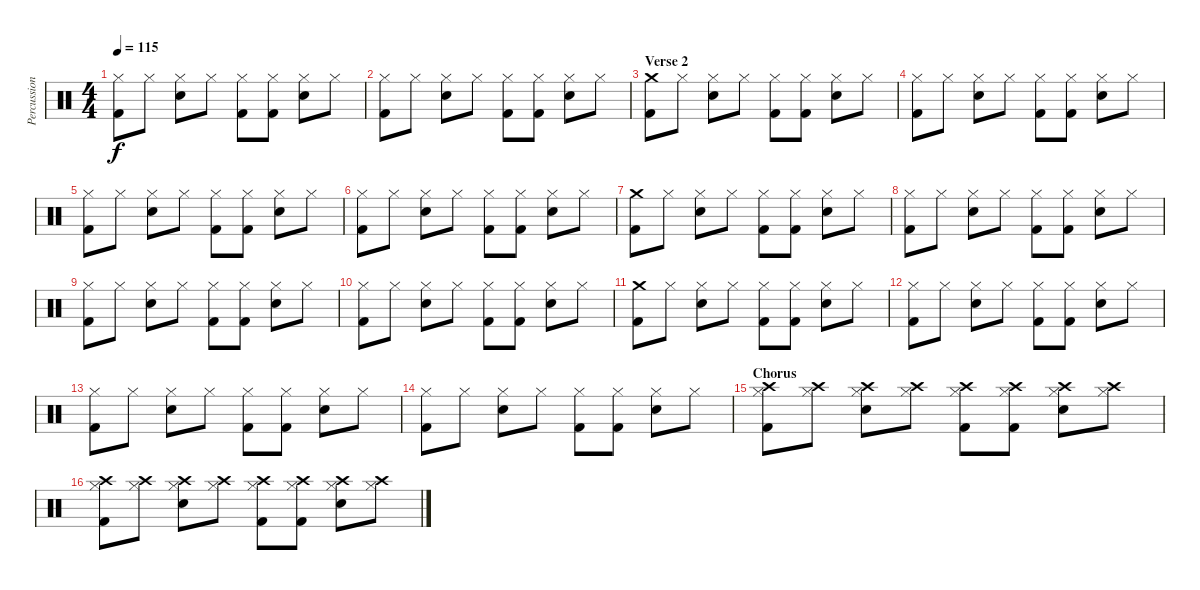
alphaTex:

\track ("Percussions" "Percussion") {instrument percussion}
\staff {score}
\articulation defaults
\ts (4 4)
\tempo 115
\clef neutral
\ks c
("Hi-Hat (closed)" "Kick (hit) 2").8{dy f} "Hi-Hat (closed)".8 ("Hi-Hat (closed)" "Electric Snare (hit)").8 "Hi-Hat (closed)".8 ("Hi-Hat (closed)" "Kick (hit) 2").8 ("Hi-Hat (closed)" "Kick (hit) 2").8 ("Hi-Hat (closed)" "Electric Snare (hit)").8 "Hi-Hat (closed)".8 |
("Hi-Hat (closed)" "Kick (hit) 2").8 "Hi-Hat (closed)".8 ("Hi-Hat (closed)" "Electric Snare (hit)").8 "Hi-Hat (closed)".8 ("Hi-Hat (closed)" "Kick (hit) 2").8 ("Hi-Hat (closed)" "Kick (hit) 2").8 ("Hi-Hat (closed)" "Electric Snare (hit)").8 "Hi-Hat (closed)".8 |
\section ("" "Verse 2")
("Crash medium (hit)" "Kick (hit) 2").8 "Hi-Hat (closed)".8 ("Hi-Hat (closed)" "Electric Snare (hit)").8 "Hi-Hat (closed)".8 ("Hi-Hat (closed)" "Kick (hit) 2").8 ("Hi-Hat (closed)" "Kick (hit) 2").8 ("Hi-Hat (closed)" "Electric Snare (hit)").8 "Hi-Hat (closed)".8 |
("Hi-Hat (closed)" "Kick (hit) 2").8 "Hi-Hat (closed)".8 ("Hi-Hat (closed)" "Electric Snare (hit)").8 "Hi-Hat (closed)".8 ("Hi-Hat (closed)" "Kick (hit) 2").8 ("Hi-Hat (closed)" "Kick (hit) 2").8 ("Hi-Hat (closed)" "Electric Snare (hit)").8 "Hi-Hat (closed)".8 |
("Hi-Hat (closed)" "Kick (hit) 2").8 "Hi-Hat (closed)".8 ("Hi-Hat (closed)" "Electric Snare (hit)").8 "Hi-Hat (closed)".8 ("Hi-Hat (closed)" "Kick (hit) 2").8 ("Hi-Hat (closed)" "Kick (hit) 2").8 ("Hi-Hat (closed)" "Electric Snare (hit)").8 "Hi-Hat (closed)".8 |
("Hi-Hat (closed)" "Kick (hit) 2").8 "Hi-Hat (closed)".8 ("Hi-Hat (closed)" "Electric Snare (hit)").8 "Hi-Hat (closed)".8 ("Hi-Hat (closed)" "Kick (hit) 2").8 ("Hi-Hat (closed)" "Kick (hit) 2").8 ("Hi-Hat (closed)" "Electric Snare (hit)").8 "Hi-Hat (closed)".8 |
("Crash medium (hit)" "Kick (hit) 2").8 "Hi-Hat (closed)".8 ("Hi-Hat (closed)" "Electric Snare (hit)").8 "Hi-Hat (closed)".8 ("Hi-Hat (closed)" "Kick (hit) 2").8 ("Hi-Hat (closed)" "Kick (hit) 2").8 ("Hi-Hat (closed)" "Electric Snare (hit)").8 "Hi-Hat (closed)".8 |
("Hi-Hat (closed)" "Kick (hit) 2").8 "Hi-Hat (closed)".8 ("Hi-Hat (closed)" "Electric Snare (hit)").8 "Hi-Hat (closed)".8 ("Hi-Hat (closed)" "Kick (hit) 2").8 ("Hi-Hat (closed)" "Kick (hit) 2").8 ("Hi-Hat (closed)" "Electric Snare (hit)").8 "Hi-Hat (closed)".8 |
("Hi-Hat (closed)" "Kick (hit) 2").8 "Hi-Hat (closed)".8 ("Hi-Hat (closed)" "Electric Snare (hit)").8 "Hi-Hat (closed)".8 ("Hi-Hat (closed)" "Kick (hit) 2").8 ("Hi-Hat (closed)" "Kick (hit) 2").8 ("Hi-Hat (closed)" "Electric Snare (hit)").8 "Hi-Hat (closed)".8 |
("Hi-Hat (closed)" "Kick (hit) 2").8 "Hi-Hat (closed)".8 ("Hi-Hat (closed)" "Electric Snare (hit)").8 "Hi-Hat (closed)".8 ("Hi-Hat (closed)" "Kick (hit) 2").8 ("Hi-Hat (closed)" "Kick (hit) 2").8 ("Hi-Hat (closed)" "Electric Snare (hit)").8 "Hi-Hat (closed)".8 |
("Crash medium (hit)" "Kick (hit) 2").8 "Hi-Hat (closed)".8 ("Hi-Hat (closed)" "Electric Snare (hit)").8 "Hi-Hat (closed)".8 ("Hi-Hat (closed)" "Kick (hit) 2").8 ("Hi-Hat (closed)" "Kick (hit) 2").8 ("Hi-Hat (closed)" "Electric Snare (hit)").8 "Hi-Hat (closed)".8 |
("Hi-Hat (closed)" "Kick (hit) 2").8 "Hi-Hat (closed)".8 ("Hi-Hat (closed)" "Electric Snare (hit)").8 "Hi-Hat (closed)".8 ("Hi-Hat (closed)" "Kick (hit) 2").8 ("Hi-Hat (closed)" "Kick (hit) 2").8 ("Hi-Hat (closed)" "Electric Snare (hit)").8 "Hi-Hat (closed)".8 |
("Hi-Hat (closed)" "Kick (hit) 2").8 "Hi-Hat (closed)".8 ("Hi-Hat (closed)" "Electric Snare (hit)").8 "Hi-Hat (closed)".8 ("Hi-Hat (closed)" "Kick (hit) 2").8 ("Hi-Hat (closed)" "Kick (hit) 2").8 ("Hi-Hat (closed)" "Electric Snare (hit)").8 "Hi-Hat (closed)".8 |
("Hi-Hat (closed)" "Kick (hit) 2").8 "Hi-Hat (closed)".8 ("Hi-Hat (closed)" "Electric Snare (hit)").8 "Hi-Hat (closed)".8 ("Hi-Hat (closed)" "Kick (hit) 2").8 ("Hi-Hat (closed)" "Kick (hit) 2").8 ("Hi-Hat (closed)" "Electric Snare (hit)").8 "Hi-Hat (closed)".8 |
\section ("" "Chorus")
("Crash high (hit)" "Hi-Hat (closed)" "Kick (hit) 2").8 ("Crash high (hit)" "Hi-Hat (closed)").8 ("Crash high (hit)" "Hi-Hat (closed)" "Electric Snare (hit)").8 ("Crash high (hit)" "Hi-Hat (closed)").8 ("Crash high (hit)" "Hi-Hat (closed)" "Kick (hit) 2").8 ("Crash high (hit)" "Hi-Hat (closed)" "Kick (hit) 2").8 ("Crash high (hit)" "Hi-Hat (closed)" "Electric Snare (hit)").8 ("Crash high (hit)" "Hi-Hat (closed)").8 |
("Crash high (hit)" "Hi-Hat (closed)" "Kick (hit) 2").8 ("Crash high (hit)" "Hi-Hat (closed)").8 ("Crash high (hit)" "Hi-Hat (closed)" "Electric Snare (hit)").8 ("Crash high (hit)" "Hi-Hat (closed)").8 ("Crash high (hit)" "Hi-Hat (closed)" "Kick (hit) 2").8 ("Crash high (hit)" "Hi-Hat (closed)" "Kick (hit) 2").8 ("Crash high (hit)" "Hi-Hat (closed)" "Electric Snare (hit)").8 ("Crash high (hit)" "Hi-Hat (closed)").8
